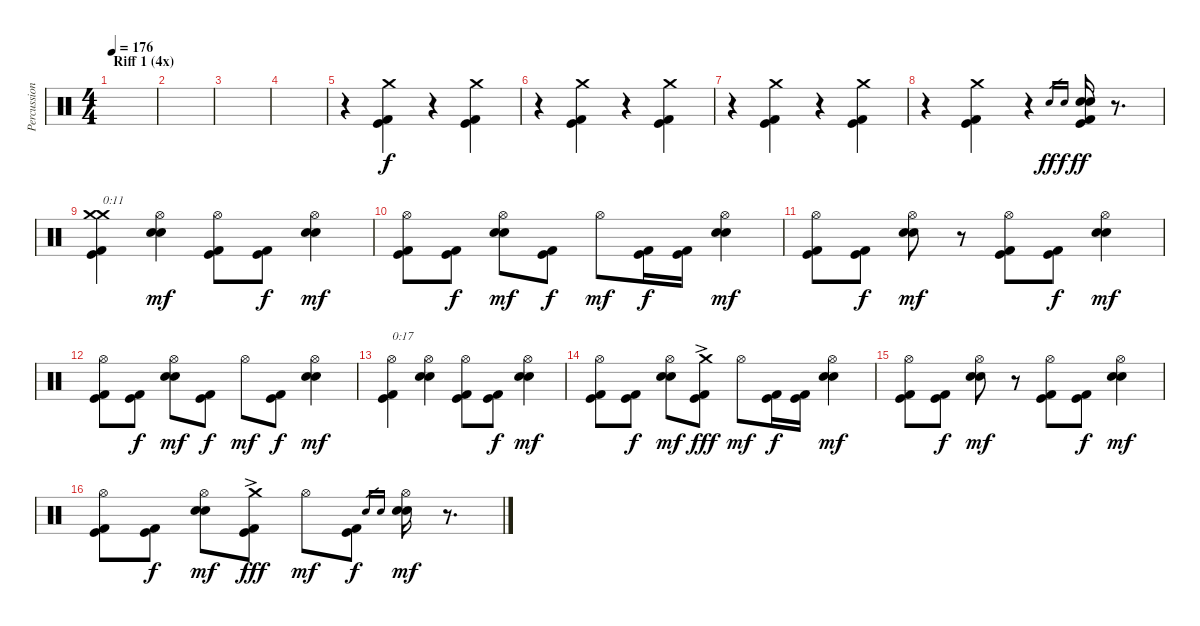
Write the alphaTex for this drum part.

\track ("Percussion" "Percussion") {instrument percussion}
\staff {score}
\articulation defaults
\ts (4 4)
\section ("" "Riff 1 (4x)")
\tempo 176
\clef neutral
\ks c
|
|
|
|
r.4 ("Kick (hit) 2" "Kick (hit)" "Crash medium (hit)").4 r.4{volume 0} ("Kick (hit) 2" "Kick (hit)" "Crash medium (hit)").4{volume 11} |
r.4{volume 0} ("Kick (hit) 2" "Kick (hit)" "Crash medium (hit)").4{volume 11} r.4{volume 0} ("Kick (hit) 2" "Kick (hit)" "Crash medium (hit)").4{volume 11} |
r.4{volume 0} ("Kick (hit) 2" "Kick (hit)" "Crash medium (hit)").4{volume 11} r.4{volume 0} ("Kick (hit) 2" "Kick (hit)" "Crash medium (hit)").4{volume 11} |
r.4{volume 0} ("Kick (hit) 2" "Kick (hit)" "Crash medium (hit)").4{volume 11} r.4{volume 0} "Electric Snare (hit)".16{gr dy ff} "Snare (hit) 2".16{gr dy f} ("Kick (hit) 2" "Kick (hit)" "Electric Snare (hit)" "Snare (hit) 2").16{dy ff volume 11} r.8{d} |
("Kick (hit) 2" "Kick (hit)" "Crash medium (hit)" "Crash medium (hit)").4{txt "0:11"} ("Electric Snare (hit)" "Snare (hit) 2" "Hi-Hat (open)").4{dy mf} ("Kick (hit) 2" "Kick (hit)" "Hi-Hat (open)").8 ("Kick (hit) 2" "Kick (hit)").8{dy f} ("Electric Snare (hit)" "Snare (hit) 2" "Hi-Hat (open)").4{dy mf} |
("Kick (hit) 2" "Kick (hit)" "Hi-Hat (open)").8 ("Kick (hit) 2" "Kick (hit)").8{dy f} ("Electric Snare (hit)" "Snare (hit) 2" "Hi-Hat (open)").8{dy mf} ("Kick (hit) 2" "Kick (hit)").8{dy f} "Hi-Hat (open)".8{dy mf} ("Kick (hit) 2" "Kick (hit)").16{dy f} ("Kick (hit) 2" "Kick (hit)").16 ("Electric Snare (hit)" "Snare (hit) 2" "Hi-Hat (open)").4{dy mf} |
("Kick (hit) 2" "Kick (hit)" "Hi-Hat (open)").8 ("Kick (hit) 2" "Kick (hit)").8{dy f} ("Electric Snare (hit)" "Snare (hit) 2" "Hi-Hat (open)").8{dy mf} r.8 ("Kick (hit) 2" "Kick (hit)" "Hi-Hat (open)").8 ("Kick (hit) 2" "Kick (hit)").8{dy f} ("Electric Snare (hit)" "Snare (hit) 2" "Hi-Hat (open)").4{dy mf} |
("Kick (hit) 2" "Kick (hit)" "Hi-Hat (open)").8 ("Kick (hit) 2" "Kick (hit)").8{dy f} ("Electric Snare (hit)" "Snare (hit) 2" "Hi-Hat (open)").8{dy mf} ("Kick (hit) 2" "Kick (hit)").8{dy f} "Hi-Hat (open)".8{dy mf} ("Kick (hit) 2" "Kick (hit)").8{dy f} ("Electric Snare (hit)" "Snare (hit) 2" "Hi-Hat (open)").4{dy mf} |
("Kick (hit) 2" "Kick (hit)" "Hi-Hat (open)").4{txt "0:17"} ("Electric Snare (hit)" "Snare (hit) 2" "Hi-Hat (open)").4 ("Kick (hit) 2" "Kick (hit)" "Hi-Hat (open)").8 ("Kick (hit) 2" "Kick (hit)").8{dy f} ("Electric Snare (hit)" "Snare (hit) 2" "Hi-Hat (open)").4{dy mf} |
("Kick (hit) 2" "Kick (hit)" "Hi-Hat (open)").8 ("Kick (hit) 2" "Kick (hit)").8{dy f} ("Electric Snare (hit)" "Snare (hit) 2" "Hi-Hat (open)").8{dy mf} ("Kick (hit) 2" "Kick (hit)" "Crash medium (hit)"{ac}).8{dy fff} "Hi-Hat (open)".8{dy mf} ("Kick (hit) 2" "Kick (hit)").16{dy f} ("Kick (hit) 2" "Kick (hit)").16 ("Electric Snare (hit)" "Snare (hit) 2" "Hi-Hat (open)").4{dy mf} |
("Kick (hit) 2" "Kick (hit)" "Hi-Hat (open)").8 ("Kick (hit) 2" "Kick (hit)").8{dy f} ("Electric Snare (hit)" "Snare (hit) 2" "Hi-Hat (open)").8{dy mf} r.8 ("Kick (hit) 2" "Kick (hit)" "Hi-Hat (open)").8 ("Kick (hit) 2" "Kick (hit)").8{dy f} ("Electric Snare (hit)" "Snare (hit) 2" "Hi-Hat (open)").4{dy mf} |
("Kick (hit) 2" "Kick (hit)" "Hi-Hat (open)").8 ("Kick (hit) 2" "Kick (hit)").8{dy f} ("Electric Snare (hit)" "Snare (hit) 2" "Hi-Hat (open)").8{dy mf} ("Kick (hit) 2" "Kick (hit)" "Crash medium (hit)"{ac}).8{dy fff} "Hi-Hat (open)".8{dy mf} ("Kick (hit) 2" "Kick (hit)").8{dy f} "Electric Snare (hit)".16{gr} "Snare (hit) 2".16{gr} ("Electric Snare (hit)" "Snare (hit) 2" "Hi-Hat (open)").16{dy mf} r.8{d}
